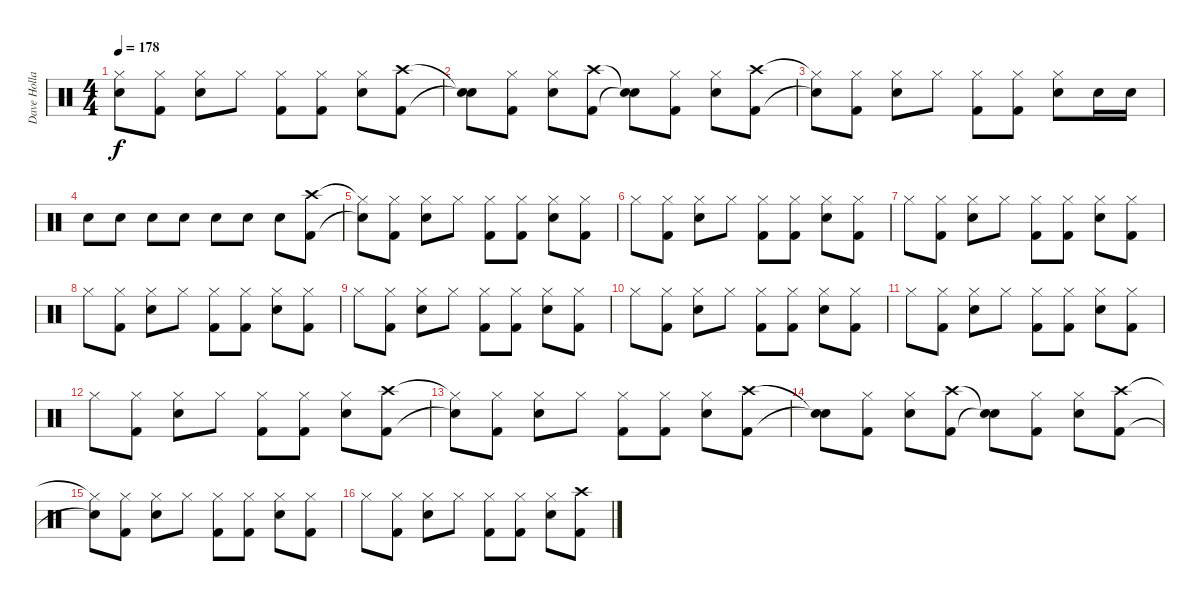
\track ("Dave Holland" "Dave Holla") {instrument percussion}
\staff {score}
\articulation defaults
\ts (4 4)
\tempo 178
\clef neutral
\ks c
("Hi-Hat (closed)"{t} "Snare (hit)"{t}).8{dy f} ("Hi-Hat (closed)" "Kick (hit) 2").8 ("Hi-Hat (closed)" "Snare (hit) 2").8 "Hi-Hat (closed)".8 ("Hi-Hat (closed)" "Kick (hit) 2").8 ("Hi-Hat (closed)" "Kick (hit) 2").8 ("Hi-Hat (closed)" "Snare (hit) 2").8 ("Crash high (hit)" "Kick (hit) 2").8 |
("Snare (hit)"{t} "Snare (hit)"{t}).8 ("Hi-Hat (closed)" "Kick (hit) 2").8 ("Hi-Hat (closed)" "Snare (hit) 2").8 ("Crash high (hit)" "Kick (hit) 2").8 ("Snare (hit)"{t} "Snare (hit)"{t}).8 ("Hi-Hat (closed)" "Kick (hit) 2").8 ("Hi-Hat (closed)" "Snare (hit) 2").8 ("Crash high (hit)" "Kick (hit) 2").8 |
("Hi-Hat (closed)"{t} "Snare (hit)"{t}).8 ("Hi-Hat (closed)" "Kick (hit) 2").8 ("Hi-Hat (closed)" "Snare (hit) 2").8 "Hi-Hat (closed)".8 ("Hi-Hat (closed)" "Kick (hit) 2").8 ("Hi-Hat (closed)" "Kick (hit) 2").8 ("Hi-Hat (closed)" "Snare (hit) 2").8 "Snare (hit) 2".16 "Snare (hit) 2".16 |
"Snare (hit) 2".8 "Snare (hit) 2".8 "Snare (hit) 2".8 "Snare (hit) 2".8 "Snare (hit) 2".8 "Snare (hit) 2".8 "Snare (hit) 2".8 ("Crash high (hit)" "Kick (hit) 2").8 |
("Hi-Hat (closed)"{t} "Snare (hit)"{t}).8 ("Hi-Hat (closed)" "Kick (hit) 2").8 ("Hi-Hat (closed)" "Snare (hit) 2").8 "Hi-Hat (closed)".8 ("Hi-Hat (closed)" "Kick (hit) 2").8 ("Hi-Hat (closed)" "Kick (hit) 2").8 ("Hi-Hat (closed)" "Snare (hit) 2").8 ("Hi-Hat (closed)" "Kick (hit) 2").8 |
"Hi-Hat (closed)".8 ("Hi-Hat (closed)" "Kick (hit) 2").8 ("Hi-Hat (closed)" "Snare (hit) 2").8 "Hi-Hat (closed)".8 ("Hi-Hat (closed)" "Kick (hit) 2").8 ("Hi-Hat (closed)" "Kick (hit) 2").8 ("Hi-Hat (closed)" "Snare (hit) 2").8 ("Hi-Hat (closed)" "Kick (hit) 2").8 |
"Hi-Hat (closed)".8 ("Hi-Hat (closed)" "Kick (hit) 2").8 ("Hi-Hat (closed)" "Snare (hit) 2").8 "Hi-Hat (closed)".8 ("Hi-Hat (closed)" "Kick (hit) 2").8 ("Hi-Hat (closed)" "Kick (hit) 2").8 ("Hi-Hat (closed)" "Snare (hit) 2").8 ("Hi-Hat (closed)" "Kick (hit) 2").8 |
"Hi-Hat (closed)".8 ("Hi-Hat (closed)" "Kick (hit) 2").8 ("Hi-Hat (closed)" "Snare (hit) 2").8 "Hi-Hat (closed)".8 ("Hi-Hat (closed)" "Kick (hit) 2").8 ("Hi-Hat (closed)" "Kick (hit) 2").8 ("Hi-Hat (closed)" "Snare (hit) 2").8 ("Hi-Hat (closed)" "Kick (hit) 2").8 |
"Hi-Hat (closed)".8 ("Hi-Hat (closed)" "Kick (hit) 2").8 ("Hi-Hat (closed)" "Snare (hit) 2").8 "Hi-Hat (closed)".8 ("Hi-Hat (closed)" "Kick (hit) 2").8 ("Hi-Hat (closed)" "Kick (hit) 2").8 ("Hi-Hat (closed)" "Snare (hit) 2").8 ("Hi-Hat (closed)" "Kick (hit) 2").8 |
"Hi-Hat (closed)".8 ("Hi-Hat (closed)" "Kick (hit) 2").8 ("Hi-Hat (closed)" "Snare (hit) 2").8 "Hi-Hat (closed)".8 ("Hi-Hat (closed)" "Kick (hit) 2").8 ("Hi-Hat (closed)" "Kick (hit) 2").8 ("Hi-Hat (closed)" "Snare (hit) 2").8 ("Hi-Hat (closed)" "Kick (hit) 2").8 |
"Hi-Hat (closed)".8 ("Hi-Hat (closed)" "Kick (hit) 2").8 ("Hi-Hat (closed)" "Snare (hit) 2").8 "Hi-Hat (closed)".8 ("Hi-Hat (closed)" "Kick (hit) 2").8 ("Hi-Hat (closed)" "Kick (hit) 2").8 ("Hi-Hat (closed)" "Snare (hit) 2").8 ("Hi-Hat (closed)" "Kick (hit) 2").8 |
"Hi-Hat (closed)".8 ("Hi-Hat (closed)" "Kick (hit) 2").8 ("Hi-Hat (closed)" "Snare (hit) 2").8 "Hi-Hat (closed)".8 ("Hi-Hat (closed)" "Kick (hit) 2").8 ("Hi-Hat (closed)" "Kick (hit) 2").8 ("Hi-Hat (closed)" "Snare (hit) 2").8 ("Crash high (hit)" "Kick (hit) 2").8 |
("Hi-Hat (closed)"{t} "Snare (hit)"{t}).8 ("Hi-Hat (closed)" "Kick (hit) 2").8 ("Hi-Hat (closed)" "Snare (hit) 2").8 "Hi-Hat (closed)".8 ("Hi-Hat (closed)" "Kick (hit) 2").8 ("Hi-Hat (closed)" "Kick (hit) 2").8 ("Hi-Hat (closed)" "Snare (hit) 2").8 ("Crash high (hit)" "Kick (hit) 2").8 |
("Snare (hit)"{t} "Snare (hit)"{t}).8 ("Hi-Hat (closed)" "Kick (hit) 2").8 ("Hi-Hat (closed)" "Snare (hit) 2").8 ("Crash high (hit)" "Kick (hit) 2").8 ("Snare (hit)"{t} "Snare (hit)"{t}).8 ("Hi-Hat (closed)" "Kick (hit) 2").8 ("Hi-Hat (closed)" "Snare (hit) 2").8 ("Crash high (hit)" "Kick (hit) 2").8 |
("Hi-Hat (closed)"{t} "Snare (hit)"{t}).8 ("Hi-Hat (closed)" "Kick (hit) 2").8 ("Hi-Hat (closed)" "Snare (hit) 2").8 "Hi-Hat (closed)".8 ("Hi-Hat (closed)" "Kick (hit) 2").8 ("Hi-Hat (closed)" "Kick (hit) 2").8 ("Hi-Hat (closed)" "Snare (hit) 2").8 ("Hi-Hat (closed)" "Kick (hit) 2").8 |
"Hi-Hat (closed)".8 ("Hi-Hat (closed)" "Kick (hit) 2").8 ("Hi-Hat (closed)" "Snare (hit) 2").8 "Hi-Hat (closed)".8 ("Hi-Hat (closed)" "Kick (hit) 2").8 ("Hi-Hat (closed)" "Kick (hit) 2").8 ("Hi-Hat (closed)" "Snare (hit) 2").8 ("Crash high (hit)" "Kick (hit) 2").8
